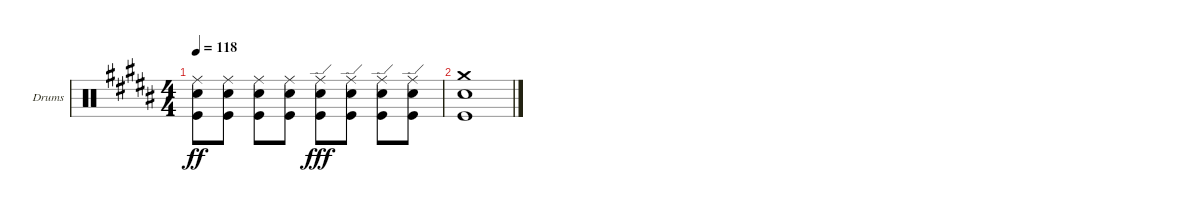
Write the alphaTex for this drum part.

\bracketExtendMode groupsimilarinstruments
\firstSystemTrackNameOrientation horizontal
\otherSystemsTrackNameOrientation horizontal
\track ("Fabrizio Moretti" "Drums") {instrument percussion}
\staff {score}
\articulation defaults
\ts (4 4)
\tempo 118
\clef neutral
\ks b
("Snare (hit) 2" "Kick (hit)" "Ride (middle)").8{dy ff} ("Snare (hit) 2" "Kick (hit)" "Ride (middle)").8 ("Snare (hit) 2" "Kick (hit)" "Ride (middle)").8 ("Snare (hit) 2" "Kick (hit)" "Ride (middle)").8 ("Snare (hit) 2" "Kick (hit)" "Ride (edge)").8{dy fff} ("Snare (hit) 2" "Kick (hit)" "Ride (edge)").8 ("Snare (hit) 2" "Kick (hit)" "Ride (edge)").8 ("Snare (hit) 2" "Kick (hit)" "Ride (edge)").8 |
("Crash medium (hit)" "Snare (hit) 2" "Kick (hit)").1
